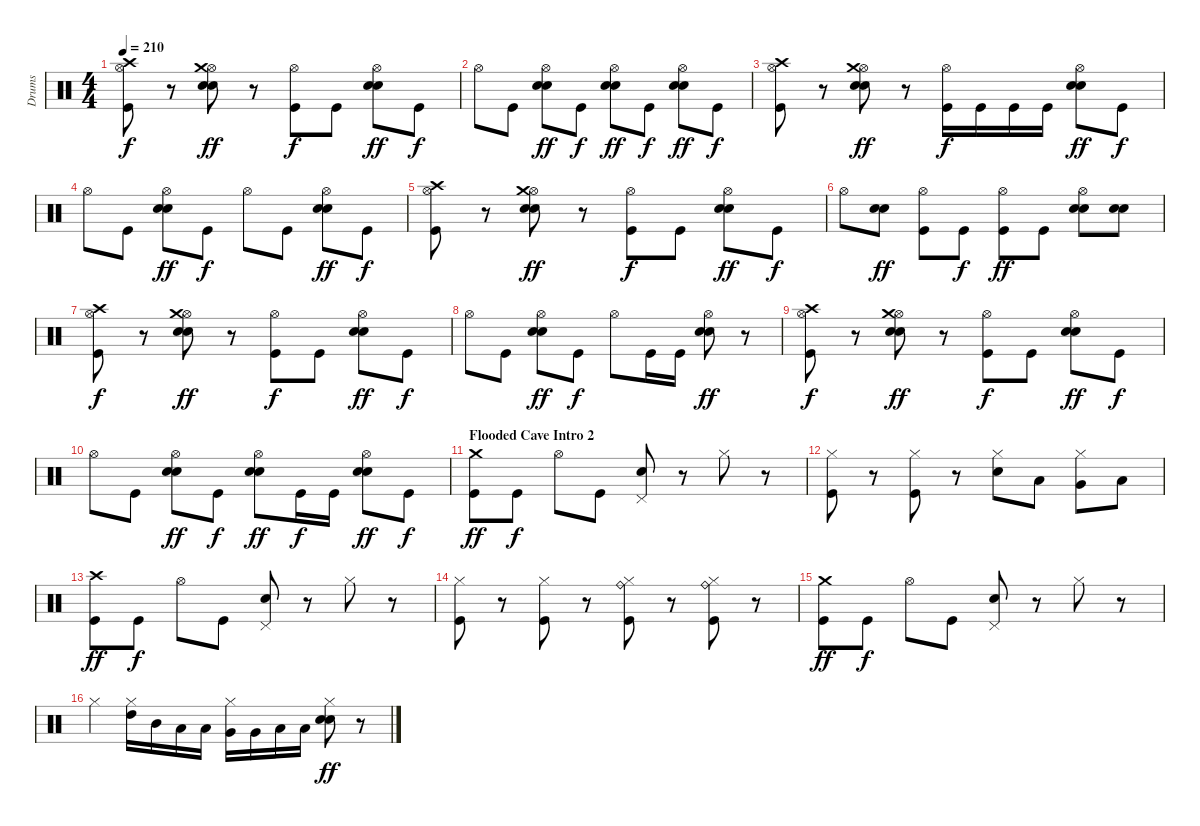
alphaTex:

\track ("Drums" "Drums") {instrument percussion}
\staff {score}
\articulation defaults
\ts (4 4)
\tempo 210
\clef neutral
\ks c
("Kick (hit)" "Hi-Hat (open)" "Crash high (hit)").8{dy f} r.8 ("Electric Snare (hit)" "Electric Snare (hit)" "Hi-Hat (open)" "Crash medium (hit)").8{dy ff} r.8 ("Kick (hit)" "Hi-Hat (open)").8{dy f} "Kick (hit)".8 ("Electric Snare (hit)" "Electric Snare (hit)" "Hi-Hat (open)").8{dy ff} "Kick (hit)".8{dy f} |
"Hi-Hat (open)".8 "Kick (hit)".8 ("Electric Snare (hit)" "Electric Snare (hit)" "Hi-Hat (open)").8{dy ff} "Kick (hit)".8{dy f} ("Electric Snare (hit)" "Electric Snare (hit)" "Hi-Hat (open)").8{dy ff} "Kick (hit)".8{dy f} ("Electric Snare (hit)" "Electric Snare (hit)" "Hi-Hat (open)").8{dy ff} "Kick (hit)".8{dy f} |
("Kick (hit)" "Hi-Hat (open)" "Crash high (hit)").8 r.8 ("Electric Snare (hit)" "Electric Snare (hit)" "Hi-Hat (open)" "Crash medium (hit)").8{dy ff} r.8 ("Kick (hit)" "Hi-Hat (open)").16{dy f} "Kick (hit)".16 "Kick (hit)".16 "Kick (hit)".16 ("Electric Snare (hit)" "Electric Snare (hit)" "Hi-Hat (open)").8{dy ff} "Kick (hit)".8{dy f} |
"Hi-Hat (open)".8 "Kick (hit)".8 ("Electric Snare (hit)" "Electric Snare (hit)" "Hi-Hat (open)").8{dy ff} "Kick (hit)".8{dy f} "Hi-Hat (open)".8 "Kick (hit)".8 ("Electric Snare (hit)" "Electric Snare (hit)" "Hi-Hat (open)").8{dy ff} "Kick (hit)".8{dy f} |
("Kick (hit)" "Hi-Hat (open)" "Crash high (hit)").8 r.8 ("Electric Snare (hit)" "Electric Snare (hit)" "Hi-Hat (open)" "Crash medium (hit)").8{dy ff} r.8 ("Kick (hit)" "Hi-Hat (open)").8{dy f} "Kick (hit)".8 ("Electric Snare (hit)" "Electric Snare (hit)" "Hi-Hat (open)").8{dy ff} "Kick (hit)".8{dy f} |
"Hi-Hat (open)".8 ("Electric Snare (hit)" "Electric Snare (hit)").8{dy ff} ("Kick (hit)" "Hi-Hat (open)").8 "Kick (hit)".8{dy f} ("Kick (hit)" "Hi-Hat (open)").8{dy ff} "Kick (hit)".8 ("Electric Snare (hit)" "Electric Snare (hit)" "Hi-Hat (open)").8 ("Electric Snare (hit)" "Electric Snare (hit)").8 |
("Kick (hit)" "Hi-Hat (open)" "Crash high (hit)").8{dy f} r.8 ("Electric Snare (hit)" "Electric Snare (hit)" "Hi-Hat (open)" "Crash medium (hit)").8{dy ff} r.8 ("Kick (hit)" "Hi-Hat (open)").8{dy f} "Kick (hit)".8 ("Electric Snare (hit)" "Electric Snare (hit)" "Hi-Hat (open)").8{dy ff} "Kick (hit)".8{dy f} |
"Hi-Hat (open)".8 "Kick (hit)".8 ("Electric Snare (hit)" "Electric Snare (hit)" "Hi-Hat (open)").8{dy ff} "Kick (hit)".8{dy f} "Hi-Hat (open)".8 "Kick (hit)".16 "Kick (hit)".16 ("Electric Snare (hit)" "Electric Snare (hit)" "Hi-Hat (open)").8{dy ff} r.8 |
("Kick (hit)" "Hi-Hat (open)" "Crash high (hit)").8{dy f} r.8 ("Electric Snare (hit)" "Electric Snare (hit)" "Hi-Hat (open)" "Crash medium (hit)").8{dy ff} r.8 ("Kick (hit)" "Hi-Hat (open)").8{dy f} "Kick (hit)".8 ("Electric Snare (hit)" "Electric Snare (hit)" "Hi-Hat (open)").8{dy ff} "Kick (hit)".8{dy f} |
"Hi-Hat (open)".8 "Kick (hit)".8 ("Electric Snare (hit)" "Electric Snare (hit)" "Hi-Hat (open)").8{dy ff} "Kick (hit)".8{dy f} ("Electric Snare (hit)" "Electric Snare (hit)" "Hi-Hat (open)").8{dy ff} "Kick (hit)".16{dy f} "Kick (hit)".16 ("Electric Snare (hit)" "Electric Snare (hit)" "Hi-Hat (open)").8{dy ff} "Kick (hit)".8{dy f} |
\section ("" "Flooded Cave Intro 2")
("Kick (hit)" "Crash medium (hit)").8{dy ff} "Kick (hit)".8{dy f} "Hi-Hat (open)".8 "Kick (hit)".8 ("Electric Snare (hit)" "Pedal Hi-Hat (hit)").8 r.8 "Hi-Hat (closed)".8 r.8 |
("Kick (hit)" "Hi-Hat (closed)").8 r.8 ("Kick (hit)" "Hi-Hat (closed)").8 r.8 ("Electric Snare (hit)" "Hi-Hat (closed)").8 "Low Tom (hit)".8 ("Very Low Tom (hit)" "Hi-Hat (closed)").8 "Low Floor Tom (hit)".8 |
("Kick (hit)" "Crash high (hit)").8{dy ff} "Kick (hit)".8{dy f} "Hi-Hat (open)".8 "Kick (hit)".8 ("Electric Snare (hit)" "Pedal Hi-Hat (hit)").8 r.8 "Hi-Hat (closed)".8 r.8 |
("Kick (hit)" "Hi-Hat (closed)").8 r.8 ("Kick (hit)" "Hi-Hat (closed)").8 r.8 ("Kick (hit)" "Ride (bell)" "Hi-Hat (closed)").8 r.8 ("Kick (hit)" "Ride (bell)" "Hi-Hat (closed)").8 r.8 |
("Kick (hit)" "Crash medium (hit)").8{dy ff} "Kick (hit)".8{dy f} "Hi-Hat (open)".8 "Kick (hit)".8 ("Electric Snare (hit)" "Pedal Hi-Hat (hit)").8 r.8 "Hi-Hat (closed)".8 r.8 |
"Hi-Hat (closed)".4 ("High Tom (hit)" "Hi-Hat (closed)").16 "Mid Tom (hit)".16 "Low Tom (hit)".16 "Low Tom (hit)".16 ("Very Low Tom (hit)" "Hi-Hat (closed)").16 "Very Low Tom (hit)".16 "Low Floor Tom (hit)".16 "Low Floor Tom (hit)".16 ("Electric Snare (hit)" "Electric Snare (hit)" "Hi-Hat (closed)").8{dy ff} r.8
